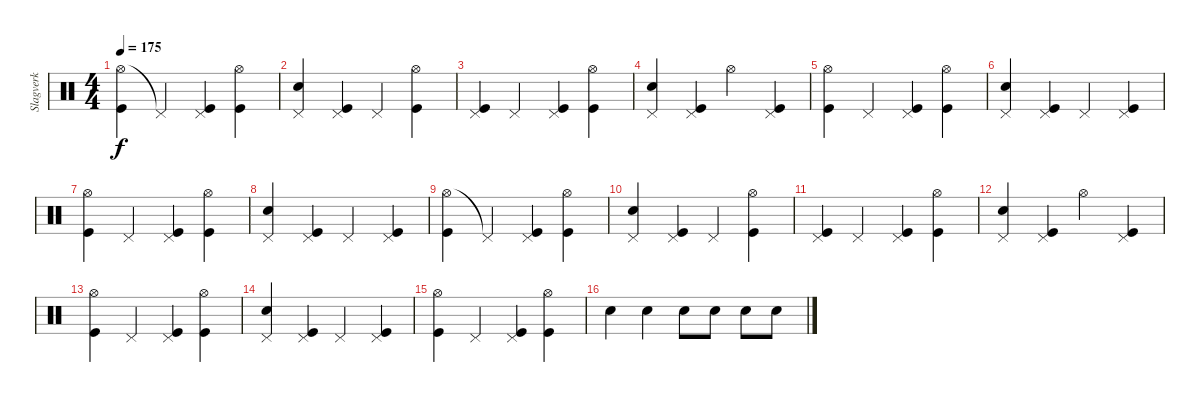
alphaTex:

\track ("Slagverk" "Slagverk") {instrument percussion}
\staff {score}
\articulation defaults
\ts (4 4)
\tempo 175
\clef neutral
\ks c
("Hi-Hat (open)" "Kick (hit)").4{dy f} "Pedal Hi-Hat (hit)"{t}.4 ("Pedal Hi-Hat (hit)" "Kick (hit)").4 ("Hi-Hat (open)" "Kick (hit)").4 |
("Pedal Hi-Hat (hit)" "Electric Snare (hit)").4 ("Pedal Hi-Hat (hit)" "Kick (hit)").4 "Pedal Hi-Hat (hit)".4 ("Hi-Hat (open)" "Kick (hit)").4 |
("Pedal Hi-Hat (hit)" "Kick (hit)").4 "Pedal Hi-Hat (hit)".4 ("Pedal Hi-Hat (hit)" "Kick (hit)").4 ("Hi-Hat (open)" "Kick (hit)").4 |
("Pedal Hi-Hat (hit)" "Electric Snare (hit)").4 ("Pedal Hi-Hat (hit)" "Kick (hit)").4 "Hi-Hat (open)".4 ("Pedal Hi-Hat (hit)" "Kick (hit)").4 |
("Hi-Hat (open)" "Kick (hit)").4 "Pedal Hi-Hat (hit)".4 ("Pedal Hi-Hat (hit)" "Kick (hit)").4 ("Hi-Hat (open)" "Kick (hit)").4 |
("Pedal Hi-Hat (hit)" "Electric Snare (hit)").4 ("Pedal Hi-Hat (hit)" "Kick (hit)").4 "Pedal Hi-Hat (hit)".4 ("Pedal Hi-Hat (hit)" "Kick (hit)").4 |
("Hi-Hat (open)" "Kick (hit)").4 "Pedal Hi-Hat (hit)".4 ("Pedal Hi-Hat (hit)" "Kick (hit)").4 ("Hi-Hat (open)" "Kick (hit)").4 |
("Pedal Hi-Hat (hit)" "Electric Snare (hit)").4 ("Pedal Hi-Hat (hit)" "Kick (hit)").4 "Pedal Hi-Hat (hit)".4 ("Pedal Hi-Hat (hit)" "Kick (hit)").4 |
("Hi-Hat (open)" "Kick (hit)").4 "Pedal Hi-Hat (hit)"{t}.4 ("Pedal Hi-Hat (hit)" "Kick (hit)").4 ("Hi-Hat (open)" "Kick (hit)").4 |
("Pedal Hi-Hat (hit)" "Electric Snare (hit)").4 ("Pedal Hi-Hat (hit)" "Kick (hit)").4 "Pedal Hi-Hat (hit)".4 ("Hi-Hat (open)" "Kick (hit)").4 |
("Pedal Hi-Hat (hit)" "Kick (hit)").4 "Pedal Hi-Hat (hit)".4 ("Pedal Hi-Hat (hit)" "Kick (hit)").4 ("Hi-Hat (open)" "Kick (hit)").4 |
("Pedal Hi-Hat (hit)" "Electric Snare (hit)").4 ("Pedal Hi-Hat (hit)" "Kick (hit)").4 "Hi-Hat (open)".4 ("Pedal Hi-Hat (hit)" "Kick (hit)").4 |
("Hi-Hat (open)" "Kick (hit)").4 "Pedal Hi-Hat (hit)".4 ("Pedal Hi-Hat (hit)" "Kick (hit)").4 ("Hi-Hat (open)" "Kick (hit)").4 |
("Pedal Hi-Hat (hit)" "Electric Snare (hit)").4 ("Pedal Hi-Hat (hit)" "Kick (hit)").4 "Pedal Hi-Hat (hit)".4 ("Pedal Hi-Hat (hit)" "Kick (hit)").4 |
("Hi-Hat (open)" "Kick (hit)").4 "Pedal Hi-Hat (hit)".4 ("Pedal Hi-Hat (hit)" "Kick (hit)").4 ("Hi-Hat (open)" "Kick (hit)").4 |
"Electric Snare (hit)".4 "Electric Snare (hit)".4 "Electric Snare (hit)".8 "Electric Snare (hit)".8 "Electric Snare (hit)".8 "Electric Snare (hit)".8
